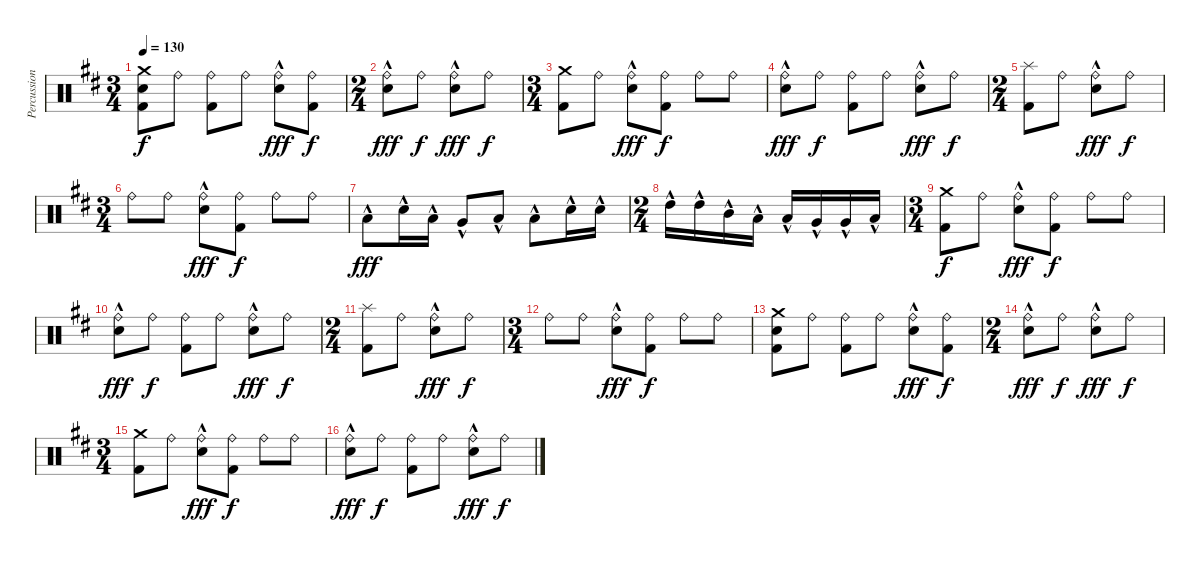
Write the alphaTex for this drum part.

\track ("Percussion" "Percussion") {instrument percussion bank 110}
\staff {score}
\articulation defaults
\ts (3 4)
\tempo 130
\clef neutral
\ks d
("Crash medium (hit)" "Electric Snare (hit)" "Kick (hit) 2").8{dy f} "Ride (bell)".8 ("Ride (bell)" "Kick (hit) 2").8 "Ride (bell)".8 ("Ride (bell)" "Electric Snare (hit)"{hac}).8{dy fff} ("Ride (bell)" "Kick (hit) 2").8{dy f} |
\ts (2 4)
("Ride (bell)" "Electric Snare (hit)"{hac}).8{dy fff} "Ride (bell)".8{dy f} ("Ride (bell)" "Electric Snare (hit)"{hac}).8{dy fff} "Ride (bell)".8{dy f} |
\ts (3 4)
("Crash medium (hit)" "Kick (hit) 2").8 "Ride (bell)".8 ("Ride (bell)" "Electric Snare (hit)"{hac}).8{dy fff} ("Ride (bell)" "Kick (hit) 2").8{dy f} "Ride (bell)".8 "Ride (bell)".8 |
("Ride (bell)" "Electric Snare (hit)"{hac}).8{dy fff} "Ride (bell)".8{dy f} ("Ride (bell)" "Kick (hit) 2").8 "Ride (bell)".8 ("Ride (bell)" "Electric Snare (hit)"{hac}).8{dy fff} "Ride (bell)".8{dy f} |
\ts (2 4)
("Splash (hit)" "Kick (hit) 2").8 "Ride (bell)".8 ("Ride (bell)" "Electric Snare (hit)"{hac}).8{dy fff} "Ride (bell)".8{dy f} |
\ts (3 4)
"Ride (bell)".8 "Ride (bell)".8 ("Ride (bell)" "Electric Snare (hit)"{hac}).8{dy fff} ("Ride (bell)" "Kick (hit) 2").8{dy f} "Ride (bell)".8 "Ride (bell)".8 |
"Low Floor Tom (hit)"{hac}.8{dy fff} "Electric Snare (hit)"{hac}.16 "Low Tom (hit)"{hac}.16 "Very Low Tom (hit)"{hac}.8 "Low Floor Tom (hit)"{hac}.8 "Low Floor Tom (hit)"{hac}.8 "Electric Snare (hit)"{hac}.16 "Electric Snare (hit)"{hac}.16 |
\ts (2 4)
"High Tom (hit)"{hac}.16 "High Tom (hit)"{hac}.16 "Mid Tom (hit)"{hac}.16 "Low Tom (hit)"{hac}.16 "Low Tom (hit)"{hac}.16 "Very Low Tom (hit)"{hac}.16 "Very Low Tom (hit)"{hac}.16 "Low Floor Tom (hit)"{hac}.16 |
\ts (3 4)
("Crash medium (hit)" "Kick (hit) 2").8{dy f} "Ride (bell)".8 ("Ride (bell)" "Electric Snare (hit)"{hac}).8{dy fff} ("Ride (bell)" "Kick (hit) 2").8{dy f} "Ride (bell)".8 "Ride (bell)".8 |
("Ride (bell)" "Electric Snare (hit)"{hac}).8{dy fff} "Ride (bell)".8{dy f} ("Ride (bell)" "Kick (hit) 2").8 "Ride (bell)".8 ("Ride (bell)" "Electric Snare (hit)"{hac}).8{dy fff} "Ride (bell)".8{dy f} |
\ts (2 4)
("Splash (hit)" "Kick (hit) 2").8 "Ride (bell)".8 ("Ride (bell)" "Electric Snare (hit)"{hac}).8{dy fff} "Ride (bell)".8{dy f} |
\ts (3 4)
"Ride (bell)".8 "Ride (bell)".8 ("Ride (bell)" "Electric Snare (hit)"{hac}).8{dy fff} ("Ride (bell)" "Kick (hit) 2").8{dy f} "Ride (bell)".8 "Ride (bell)".8 |
("Crash medium (hit)" "Electric Snare (hit)" "Kick (hit) 2").8 "Ride (bell)".8 ("Ride (bell)" "Kick (hit) 2").8 "Ride (bell)".8 ("Ride (bell)" "Electric Snare (hit)"{hac}).8{dy fff} ("Ride (bell)" "Kick (hit) 2").8{dy f} |
\ts (2 4)
("Ride (bell)" "Electric Snare (hit)"{hac}).8{dy fff} "Ride (bell)".8{dy f} ("Ride (bell)" "Electric Snare (hit)"{hac}).8{dy fff} "Ride (bell)".8{dy f} |
\ts (3 4)
("Crash medium (hit)" "Kick (hit) 2").8 "Ride (bell)".8 ("Ride (bell)" "Electric Snare (hit)"{hac}).8{dy fff} ("Ride (bell)" "Kick (hit) 2").8{dy f} "Ride (bell)".8 "Ride (bell)".8 |
("Ride (bell)" "Electric Snare (hit)"{hac}).8{dy fff} "Ride (bell)".8{dy f} ("Ride (bell)" "Kick (hit) 2").8 "Ride (bell)".8 ("Ride (bell)" "Electric Snare (hit)"{hac}).8{dy fff} "Ride (bell)".8{dy f}
